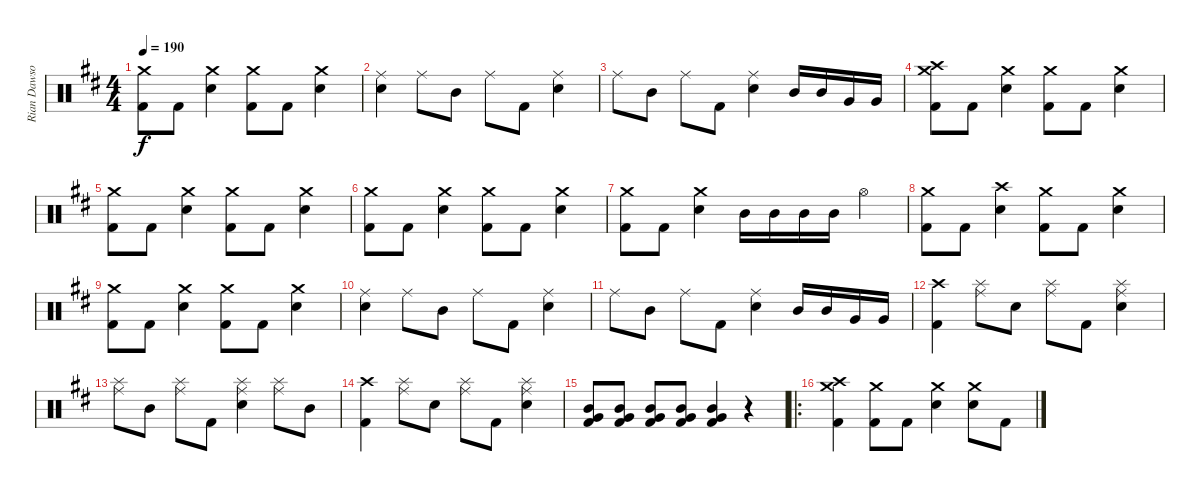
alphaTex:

\track ("Rian Dawson" "Rian Dawso") {instrument percussion}
\staff {score}
\articulation defaults
\ts (4 4)
\tempo 190
\clef neutral
\ks d
("Crash medium (hit)" "Kick (hit) 2").8{dy f} "Kick (hit) 2".8 ("Crash medium (hit)" "Electric Snare (hit)").4 ("Crash medium (hit)" "Kick (hit) 2").8 "Kick (hit) 2".8 ("Crash medium (hit)" "Electric Snare (hit)").4 |
("Ride (middle)" "Electric Snare (hit)").4 "Ride (middle)".8 "Mid Tom (hit)".8 "Ride (middle)".8 "Kick (hit) 2".8 ("Ride (middle)" "Electric Snare (hit)").4 |
"Ride (middle)".8 "Mid Tom (hit)".8 "Ride (middle)".8 "Kick (hit) 2".8 ("Ride (middle)" "Electric Snare (hit)").4 "Mid Tom (hit)".16 "Mid Tom (hit)".16 "Very Low Tom (hit)".16 "Very Low Tom (hit)".16 |
("Crash high (hit)" "Crash medium (hit)" "Kick (hit) 2").8 "Kick (hit) 2".8 ("Crash medium (hit)" "Electric Snare (hit)").4 ("Crash medium (hit)" "Kick (hit) 2").8 "Kick (hit) 2".8 ("Crash medium (hit)" "Electric Snare (hit)").4 |
("Crash medium (hit)" "Kick (hit) 2").8 "Kick (hit) 2".8 ("Crash medium (hit)" "Electric Snare (hit)").4 ("Crash medium (hit)" "Kick (hit) 2").8 "Kick (hit) 2".8 ("Crash medium (hit)" "Electric Snare (hit)").4 |
("Crash medium (hit)" "Kick (hit) 2").8 "Kick (hit) 2".8 ("Crash medium (hit)" "Electric Snare (hit)").4 ("Crash medium (hit)" "Kick (hit) 2").8 "Kick (hit) 2".8 ("Crash medium (hit)" "Electric Snare (hit)").4 |
("Crash medium (hit)" "Kick (hit) 2").8 "Kick (hit) 2".8 ("Crash medium (hit)" "Electric Snare (hit)").4 "Mid Tom (hit)".16 "Mid Tom (hit)".16 "Mid Tom (hit)".16 "Mid Tom (hit)".16 "Hi-Hat (open)".4 |
("Crash medium (hit)" "Kick (hit) 2").8 "Kick (hit) 2".8 ("Crash high (hit)" "Electric Snare (hit)").4 ("Crash medium (hit)" "Kick (hit) 2").8 "Kick (hit) 2".8 ("Crash medium (hit)" "Electric Snare (hit)").4 |
("Crash medium (hit)" "Kick (hit) 2").8 "Kick (hit) 2".8 ("Crash medium (hit)" "Electric Snare (hit)").4 ("Crash medium (hit)" "Kick (hit) 2").8 "Kick (hit) 2".8 ("Crash medium (hit)" "Electric Snare (hit)").4 |
("Ride (middle)" "Electric Snare (hit)").4 "Ride (middle)".8 "Mid Tom (hit)".8 "Ride (middle)".8 "Kick (hit) 2".8 ("Ride (middle)" "Electric Snare (hit)").4 |
"Ride (middle)".8 "Mid Tom (hit)".8 "Ride (middle)".8 "Kick (hit) 2".8 ("Ride (middle)" "Electric Snare (hit)").4 "Mid Tom (hit)".16 "Mid Tom (hit)".16 "Very Low Tom (hit)".16 "Very Low Tom (hit)".16 |
("Crash high (hit)" "Kick (hit) 2").4 ("Ride (middle)" "Splash (hit)").8 "Electric Snare (hit)".8 ("Ride (middle)" "Splash (hit)").8 "Kick (hit) 2".8 ("Ride (middle)" "Splash (hit)" "Electric Snare (hit)").4 |
("Ride (middle)" "Splash (hit)").8 "Mid Tom (hit)".8 ("Ride (middle)" "Splash (hit)").8 "Kick (hit) 2".8 ("Ride (middle)" "Splash (hit)" "Electric Snare (hit)").4 ("Ride (middle)" "Splash (hit)").8 "Mid Tom (hit)".8 |
("Crash high (hit)" "Kick (hit) 2").4 ("Ride (middle)" "Splash (hit)").8 "Electric Snare (hit)".8 ("Ride (middle)" "Splash (hit)").8 "Kick (hit) 2".8 ("Ride (middle)" "Splash (hit)" "Electric Snare (hit)").4 |
("Mid Tom (hit)" "Very Low Tom (hit)" "Kick (hit) 2").8 ("Mid Tom (hit)" "Very Low Tom (hit)" "Kick (hit) 2").8 ("Mid Tom (hit)" "Very Low Tom (hit)" "Kick (hit) 2").8 ("Mid Tom (hit)" "Very Low Tom (hit)" "Kick (hit) 2").8 ("Mid Tom (hit)" "Very Low Tom (hit)" "Kick (hit) 2").4 r.4 |
\ro
("Crash high (hit)" "Crash medium (hit)" "Kick (hit) 2").4 ("Crash medium (hit)" "Kick (hit) 2").8 "Kick (hit) 2".8 ("Crash medium (hit)" "Electric Snare (hit)").4 ("Crash medium (hit)" "Electric Snare (hit)").8 "Kick (hit) 2".8
